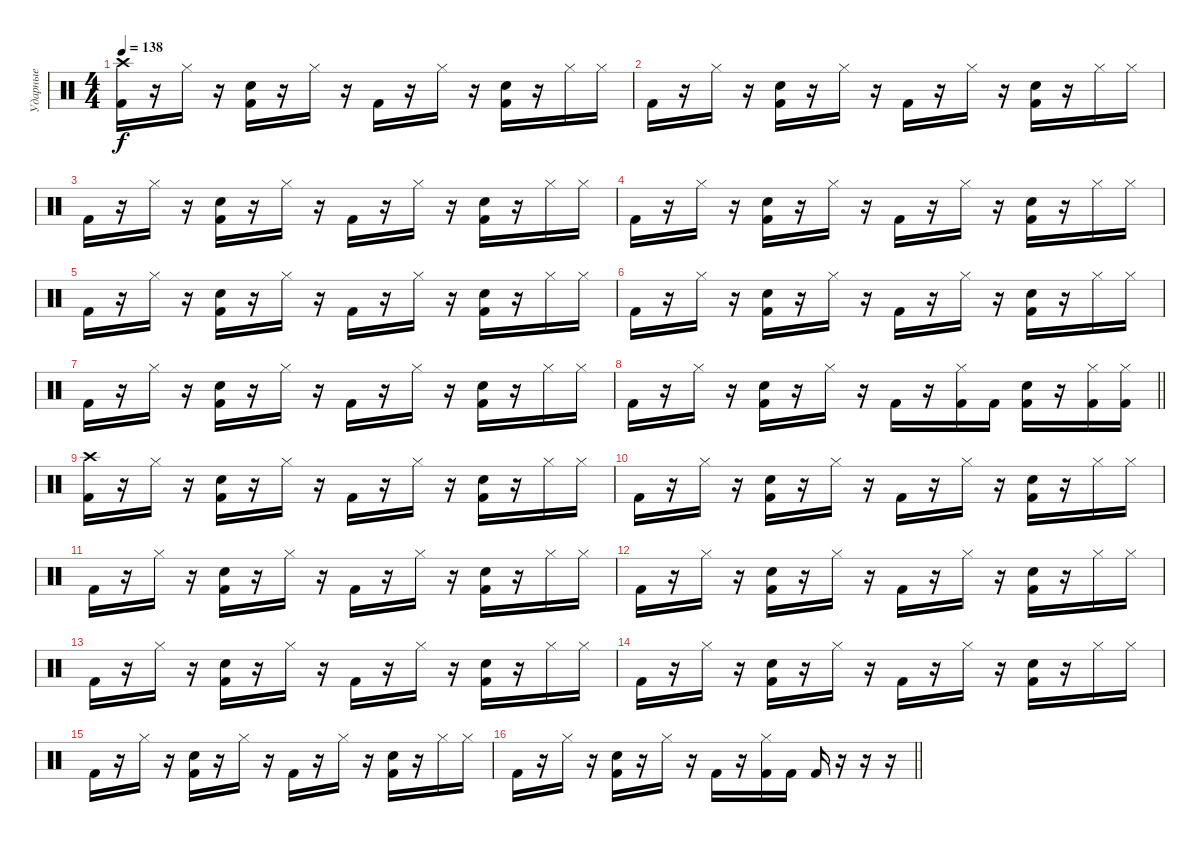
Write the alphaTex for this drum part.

\track ("Ударные" "Ударные") {instrument percussion}
\staff {score}
\articulation defaults
\ts (4 4)
\tempo 138
\clef neutral
\ks c
("Crash high (hit)" "Kick (hit) 2").16{dy f} r.16 "Hi-Hat (closed)".16 r.16 ("Electric Snare (hit)" "Kick (hit) 2").16 r.16 "Hi-Hat (closed)".16 r.16 "Kick (hit) 2".16 r.16 "Hi-Hat (closed)".16 r.16 ("Electric Snare (hit)" "Kick (hit) 2").16 r.16 "Hi-Hat (closed)".16 "Hi-Hat (closed)".16 |
"Kick (hit) 2".16 r.16 "Hi-Hat (closed)".16 r.16 ("Electric Snare (hit)" "Kick (hit) 2").16 r.16 "Hi-Hat (closed)".16 r.16 "Kick (hit) 2".16 r.16 "Hi-Hat (closed)".16 r.16 ("Electric Snare (hit)" "Kick (hit) 2").16 r.16 "Hi-Hat (closed)".16 "Hi-Hat (closed)".16 |
"Kick (hit) 2".16 r.16 "Hi-Hat (closed)".16 r.16 ("Electric Snare (hit)" "Kick (hit) 2").16 r.16 "Hi-Hat (closed)".16 r.16 "Kick (hit) 2".16 r.16 "Hi-Hat (closed)".16 r.16 ("Electric Snare (hit)" "Kick (hit) 2").16 r.16 "Hi-Hat (closed)".16 "Hi-Hat (closed)".16 |
"Kick (hit) 2".16 r.16 "Hi-Hat (closed)".16 r.16 ("Electric Snare (hit)" "Kick (hit) 2").16 r.16 "Hi-Hat (closed)".16 r.16 "Kick (hit) 2".16 r.16 "Hi-Hat (closed)".16 r.16 ("Electric Snare (hit)" "Kick (hit) 2").16 r.16 "Hi-Hat (closed)".16 "Hi-Hat (closed)".16 |
"Kick (hit) 2".16 r.16 "Hi-Hat (closed)".16 r.16 ("Electric Snare (hit)" "Kick (hit) 2").16 r.16 "Hi-Hat (closed)".16 r.16 "Kick (hit) 2".16 r.16 "Hi-Hat (closed)".16 r.16 ("Electric Snare (hit)" "Kick (hit) 2").16 r.16 "Hi-Hat (closed)".16 "Hi-Hat (closed)".16 |
"Kick (hit) 2".16 r.16 "Hi-Hat (closed)".16 r.16 ("Electric Snare (hit)" "Kick (hit) 2").16 r.16 "Hi-Hat (closed)".16 r.16 "Kick (hit) 2".16 r.16 "Hi-Hat (closed)".16 r.16 ("Electric Snare (hit)" "Kick (hit) 2").16 r.16 "Hi-Hat (closed)".16 "Hi-Hat (closed)".16 |
"Kick (hit) 2".16 r.16 "Hi-Hat (closed)".16 r.16 ("Electric Snare (hit)" "Kick (hit) 2").16 r.16 "Hi-Hat (closed)".16 r.16 "Kick (hit) 2".16 r.16 "Hi-Hat (closed)".16 r.16 ("Electric Snare (hit)" "Kick (hit) 2").16 r.16 "Hi-Hat (closed)".16 "Hi-Hat (closed)".16 |
\barLineRight lightlight "Kick (hit) 2".16
r.16 "Hi-Hat (closed)".16 r.16 ("Electric Snare (hit)" "Kick (hit) 2").16 r.16 "Hi-Hat (closed)".16 r.16 "Kick (hit) 2".16 r.16 ("Hi-Hat (closed)" "Kick (hit) 2").16 "Kick (hit) 2".16 ("Electric Snare (hit)" "Kick (hit) 2").16 r.16 ("Hi-Hat (closed)" "Kick (hit) 2").16 ("Hi-Hat (closed)" "Kick (hit) 2").16 |
("Crash high (hit)" "Kick (hit) 2").16 r.16 "Hi-Hat (closed)".16 r.16 ("Electric Snare (hit)" "Kick (hit) 2").16 r.16 "Hi-Hat (closed)".16 r.16 "Kick (hit) 2".16 r.16 "Hi-Hat (closed)".16 r.16 ("Electric Snare (hit)" "Kick (hit) 2").16 r.16 "Hi-Hat (closed)".16 "Hi-Hat (closed)".16 |
"Kick (hit) 2".16 r.16 "Hi-Hat (closed)".16 r.16 ("Electric Snare (hit)" "Kick (hit) 2").16 r.16 "Hi-Hat (closed)".16 r.16 "Kick (hit) 2".16 r.16 "Hi-Hat (closed)".16 r.16 ("Electric Snare (hit)" "Kick (hit) 2").16 r.16 "Hi-Hat (closed)".16 "Hi-Hat (closed)".16 |
"Kick (hit) 2".16 r.16 "Hi-Hat (closed)".16 r.16 ("Electric Snare (hit)" "Kick (hit) 2").16 r.16 "Hi-Hat (closed)".16 r.16 "Kick (hit) 2".16 r.16 "Hi-Hat (closed)".16 r.16 ("Electric Snare (hit)" "Kick (hit) 2").16 r.16 "Hi-Hat (closed)".16 "Hi-Hat (closed)".16 |
"Kick (hit) 2".16 r.16 "Hi-Hat (closed)".16 r.16 ("Electric Snare (hit)" "Kick (hit) 2").16 r.16 "Hi-Hat (closed)".16 r.16 "Kick (hit) 2".16 r.16 "Hi-Hat (closed)".16 r.16 ("Electric Snare (hit)" "Kick (hit) 2").16 r.16 "Hi-Hat (closed)".16 "Hi-Hat (closed)".16 |
"Kick (hit) 2".16 r.16 "Hi-Hat (closed)".16 r.16 ("Electric Snare (hit)" "Kick (hit) 2").16 r.16 "Hi-Hat (closed)".16 r.16 "Kick (hit) 2".16 r.16 "Hi-Hat (closed)".16 r.16 ("Electric Snare (hit)" "Kick (hit) 2").16 r.16 "Hi-Hat (closed)".16 "Hi-Hat (closed)".16 |
"Kick (hit) 2".16 r.16 "Hi-Hat (closed)".16 r.16 ("Electric Snare (hit)" "Kick (hit) 2").16 r.16 "Hi-Hat (closed)".16 r.16 "Kick (hit) 2".16 r.16 "Hi-Hat (closed)".16 r.16 ("Electric Snare (hit)" "Kick (hit) 2").16 r.16 "Hi-Hat (closed)".16 "Hi-Hat (closed)".16 |
"Kick (hit) 2".16 r.16 "Hi-Hat (closed)".16 r.16 ("Electric Snare (hit)" "Kick (hit) 2").16 r.16 "Hi-Hat (closed)".16 r.16 "Kick (hit) 2".16 r.16 "Hi-Hat (closed)".16 r.16 ("Electric Snare (hit)" "Kick (hit) 2").16 r.16 "Hi-Hat (closed)".16 "Hi-Hat (closed)".16 |
\barLineRight lightlight "Kick (hit) 2".16
r.16 "Hi-Hat (closed)".16 r.16 ("Electric Snare (hit)" "Kick (hit) 2").16 r.16 "Hi-Hat (closed)".16 r.16 "Kick (hit) 2".16 r.16 ("Hi-Hat (closed)" "Kick (hit) 2").16 "Kick (hit) 2".16 "Kick (hit) 2".16 r.16 r.16 r.16
